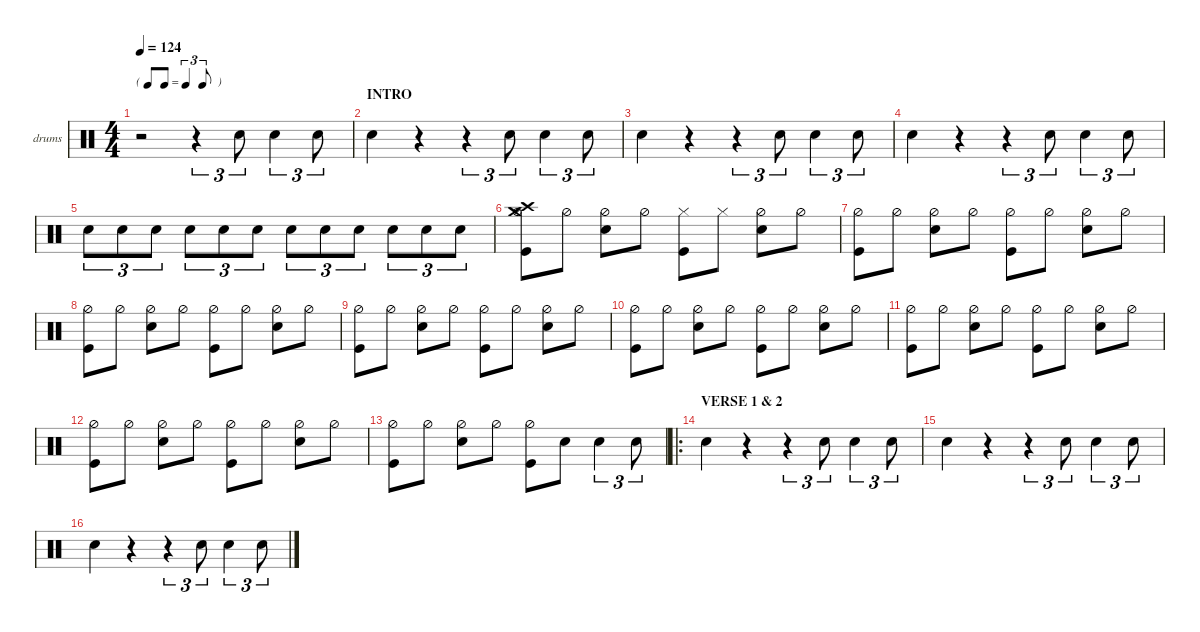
\defaultSystemsLayout 4
\hideDynamics
\bracketExtendMode nobrackets
\firstSystemTrackNameOrientation horizontal
\otherSystemsTrackNameOrientation horizontal
\track ("drums" "drums") {instrument percussion}
\staff {score}
\articulation defaults
\ts (4 4)
\tf triplet8th
\ac
\tempo 124
\clef neutral
\scale
1.12969
\ks aminor
r.2{dy mf} r.4{tu (3 2)} "Snare (hit) 2".8{tu (3 2)} "Snare (hit) 2".4{tu (3 2)} "Snare (hit) 2".8{tu (3 2)} |
\section ("" "INTRO ")
\scale
0.95677 "Snare (hit) 2".4 r.4 r.4{tu (3 2)} "Snare (hit) 2".8{tu (3 2)} "Snare (hit) 2".4{tu (3 2)} "Snare (hit) 2".8{tu (3 2)} |
\scale
0.95677 "Snare (hit) 2".4 r.4 r.4{tu (3 2)} "Snare (hit) 2".8{tu (3 2)} "Snare (hit) 2".4{tu (3 2)} "Snare (hit) 2".8{tu (3 2)} |
\scale
0.95677 "Snare (hit) 2".4 r.4 r.4{tu (3 2)} "Snare (hit) 2".8{tu (3 2)} "Snare (hit) 2".4{tu (3 2)} "Snare (hit) 2".8{tu (3 2)} |
\scale
1.06392 "Snare (hit) 2".8{tu (3 2) dy pp} "Snare (hit) 2".8{tu (3 2)} "Snare (hit) 2".8{tu (3 2)} "Snare (hit) 2".8{tu (3 2) dy p} "Snare (hit) 2".8{tu (3 2)} "Snare (hit) 2".8{tu (3 2)} "Snare (hit) 2".8{tu (3 2) dy mp} "Snare (hit) 2".8{tu (3 2)} "Snare (hit) 2".8{tu (3 2)} "Snare (hit) 2".8{tu (3 2) dy mf} "Snare (hit) 2".8{tu (3 2)} "Snare (hit) 2".8{tu (3 2)} |
\scale
0.978695 ("Kick (hit)" "Hi-Hat (half)" "Crash medium (hit)" "Crash high (hit)").8 "Hi-Hat (half)".8 ("Hi-Hat (half)" "Snare (hit) 2").8 "Hi-Hat (half)".8 ("Kick (hit)" "Hi-Hat (closed)").8 "Hi-Hat (closed)".8 ("Hi-Hat (half)" "Snare (hit) 2").8 "Hi-Hat (half)".8 |
\scale
0.978695 ("Kick (hit)" "Hi-Hat (half)").8 "Hi-Hat (half)".8 ("Hi-Hat (half)" "Snare (hit) 2").8 "Hi-Hat (half)".8 ("Kick (hit)" "Hi-Hat (half)").8 "Hi-Hat (half)".8 ("Hi-Hat (half)" "Snare (hit) 2").8 "Hi-Hat (half)".8 |
\scale
0.978695 ("Kick (hit)" "Hi-Hat (half)").8 "Hi-Hat (half)".8 ("Hi-Hat (half)" "Snare (hit) 2").8 "Hi-Hat (half)".8 ("Kick (hit)" "Hi-Hat (half)").8 "Hi-Hat (half)".8 ("Hi-Hat (half)" "Snare (hit) 2").8 "Hi-Hat (half)".8 |
\scale
1.06392 ("Kick (hit)" "Hi-Hat (half)").8 "Hi-Hat (half)".8 ("Hi-Hat (half)" "Snare (hit) 2").8 "Hi-Hat (half)".8 ("Kick (hit)" "Hi-Hat (half)").8 "Hi-Hat (half)".8 ("Hi-Hat (half)" "Snare (hit) 2").8 "Hi-Hat (half)".8 |
\scale
0.978695 ("Kick (hit)" "Hi-Hat (half)").8 "Hi-Hat (half)".8 ("Hi-Hat (half)" "Snare (hit) 2").8 "Hi-Hat (half)".8 ("Kick (hit)" "Hi-Hat (half)").8 "Hi-Hat (half)".8 ("Hi-Hat (half)" "Snare (hit) 2").8 "Hi-Hat (half)".8 |
\scale
0.978695 ("Kick (hit)" "Hi-Hat (half)").8 "Hi-Hat (half)".8 ("Hi-Hat (half)" "Snare (hit) 2").8 "Hi-Hat (half)".8 ("Kick (hit)" "Hi-Hat (half)").8 "Hi-Hat (half)".8 ("Hi-Hat (half)" "Snare (hit) 2").8 "Hi-Hat (half)".8 |
\scale
0.978695 ("Kick (hit)" "Hi-Hat (half)").8 "Hi-Hat (half)".8 ("Hi-Hat (half)" "Snare (hit) 2").8 "Hi-Hat (half)".8 ("Kick (hit)" "Hi-Hat (half)").8 "Hi-Hat (half)".8 ("Hi-Hat (half)" "Snare (hit) 2").8 "Hi-Hat (half)".8 |
\scale
1.07225 ("Kick (hit)" "Hi-Hat (half)").8 "Hi-Hat (half)".8 ("Hi-Hat (half)" "Snare (hit) 2").8 "Hi-Hat (half)".8 ("Kick (hit)" "Hi-Hat (half)").8 "Snare (hit) 2".8 "Snare (hit) 2".4{tu (3 2)} "Snare (hit) 2".8{tu (3 2)} |
\ro
\section ("" "VERSE 1 & 2")
\scale
0.989053 "Snare (hit) 2".4 r.4 r.4{tu (3 2)} "Snare (hit) 2".8{tu (3 2)} "Snare (hit) 2".4{tu (3 2)} "Snare (hit) 2".8{tu (3 2)} |
\scale
0.969347 "Snare (hit) 2".4 r.4 r.4{tu (3 2)} "Snare (hit) 2".8{tu (3 2)} "Snare (hit) 2".4{tu (3 2)} "Snare (hit) 2".8{tu (3 2)} |
\scale
0.969347 "Snare (hit) 2".4 r.4 r.4{tu (3 2)} "Snare (hit) 2".8{tu (3 2)} "Snare (hit) 2".4{tu (3 2)} "Snare (hit) 2".8{tu (3 2)}
